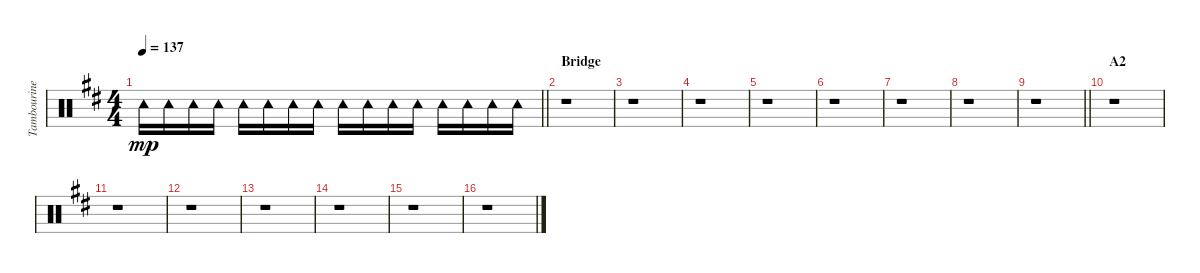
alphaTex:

\track ("Tambourine" "Tambourine") {instrument percussion}
\staff {score}
\articulation defaults
\ts (4 4)
\tempo 137
\clef neutral
\barLineRight lightlight
\ks d "Tambourine (hit)".16{dy mp} "Tambourine (hit)".16 "Tambourine (hit)".16 "Tambourine (hit)".16 "Tambourine (hit)".16 "Tambourine (hit)".16 "Tambourine (hit)".16 "Tambourine (hit)".16 "Tambourine (hit)".16 "Tambourine (hit)".16 "Tambourine (hit)".16 "Tambourine (hit)".16 "Tambourine (hit)".16 "Tambourine (hit)".16 "Tambourine (hit)".16 "Tambourine (hit)".16
|
\section ("" "Bridge")
r.1 |
r.1 |
r.1 |
r.1 |
r.1 |
r.1 |
r.1 |
\barLineRight lightlight
r.1 |
\section ("" "A2")
r.1 |
r.1 |
r.1 |
r.1 |
r.1 |
r.1 |
r.1
